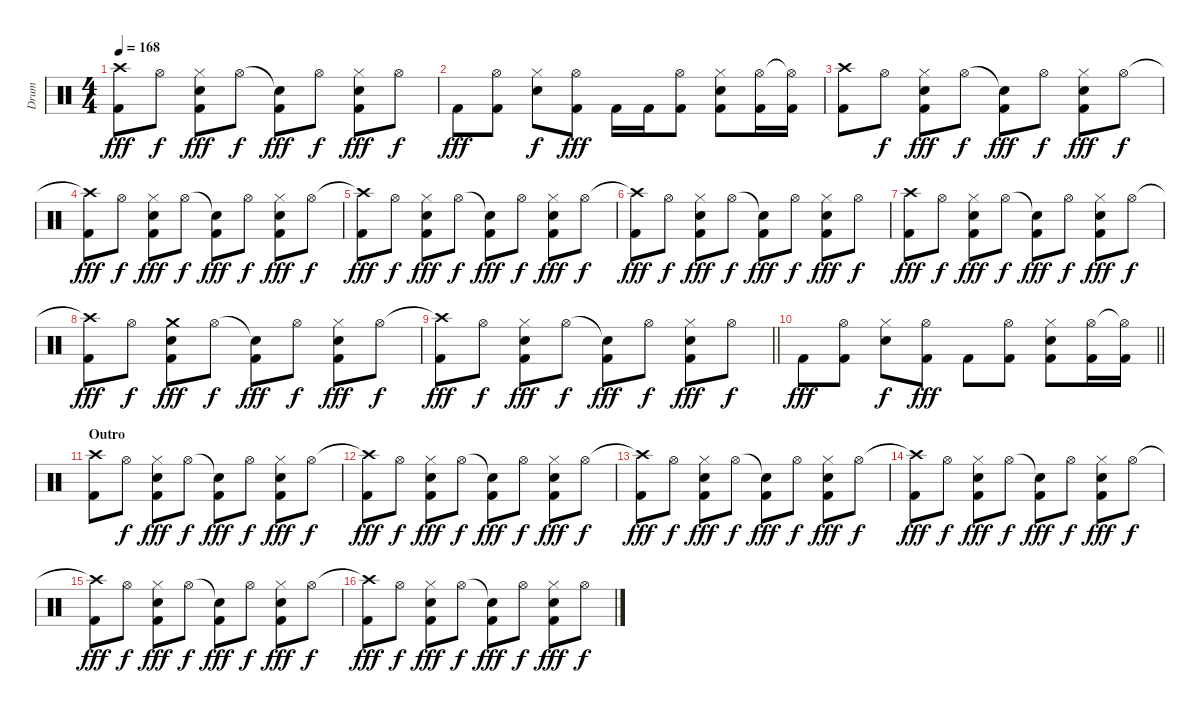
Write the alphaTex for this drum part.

\track ("Drum" "Drum") {instrument percussion}
\staff {score}
\articulation defaults
\ts (4 4)
\tempo 168
\clef neutral
\ks c
("Crash high (hit)"{t} "Kick (hit) 2").8{dy fff} "Hi-Hat (open)".8{dy f} ("Hi-Hat (closed)" "Snare (hit) 2" "Kick (hit) 2").8{dy fff} "Hi-Hat (open)".8{dy f} ("Snare (hit)"{t} "Kick (hit) 2").8{dy fff} "Hi-Hat (open)".8{dy f} ("Hi-Hat (closed)" "Snare (hit) 2" "Kick (hit) 2").8{dy fff} "Hi-Hat (open)".8{dy f} |
"Kick (hit) 2".8{dy fff} ("Hi-Hat (open)" "Kick (hit) 2").8 ("Hi-Hat (closed)" "Snare (hit) 2").8{dy f} ("Hi-Hat (open)" "Kick (hit) 2").8{dy fff} "Kick (hit) 2".16 "Kick (hit) 2".16 ("Hi-Hat (open)" "Kick (hit) 2").8 ("Hi-Hat (closed)" "Snare (hit) 2" "Kick (hit) 2").8 ("Hi-Hat (open)" "Kick (hit) 2").16 ("Hi-Hat (open)"{t} "Kick (hit) 2").16 |
("Crash high (hit)" "Kick (hit) 2").8 "Hi-Hat (open)".8{dy f} ("Hi-Hat (closed)" "Snare (hit) 2" "Kick (hit) 2").8{dy fff} "Hi-Hat (open)".8{dy f} ("Snare (hit)"{t} "Kick (hit) 2").8{dy fff} "Hi-Hat (open)".8{dy f} ("Hi-Hat (closed)" "Snare (hit) 2" "Kick (hit) 2").8{dy fff} "Hi-Hat (open)".8{dy f} |
("Crash high (hit)"{t} "Kick (hit) 2").8{dy fff} "Hi-Hat (open)".8{dy f} ("Hi-Hat (closed)" "Snare (hit) 2" "Kick (hit) 2").8{dy fff} "Hi-Hat (open)".8{dy f} ("Snare (hit)"{t} "Kick (hit) 2").8{dy fff} "Hi-Hat (open)".8{dy f} ("Hi-Hat (closed)" "Snare (hit) 2" "Kick (hit) 2").8{dy fff} "Hi-Hat (open)".8{dy f} |
("Crash high (hit)"{t} "Kick (hit) 2").8{dy fff} "Hi-Hat (open)".8{dy f} ("Hi-Hat (closed)" "Snare (hit) 2" "Kick (hit) 2").8{dy fff} "Hi-Hat (open)".8{dy f} ("Snare (hit)"{t} "Kick (hit) 2").8{dy fff} "Hi-Hat (open)".8{dy f} ("Hi-Hat (closed)" "Snare (hit) 2" "Kick (hit) 2").8{dy fff} "Hi-Hat (open)".8{dy f} |
("Crash high (hit)"{t} "Kick (hit) 2").8{dy fff} "Hi-Hat (open)".8{dy f} ("Hi-Hat (closed)" "Snare (hit) 2" "Kick (hit) 2").8{dy fff} "Hi-Hat (open)".8{dy f} ("Snare (hit)"{t} "Kick (hit) 2").8{dy fff} "Hi-Hat (open)".8{dy f} ("Hi-Hat (closed)" "Snare (hit) 2" "Kick (hit) 2").8{dy fff} "Hi-Hat (open)".8{dy f} |
("Crash high (hit)" "Kick (hit) 2").8{dy fff} "Hi-Hat (open)".8{dy f} ("Hi-Hat (closed)" "Snare (hit) 2" "Kick (hit) 2").8{dy fff} "Hi-Hat (open)".8{dy f} ("Snare (hit)"{t} "Kick (hit) 2").8{dy fff} "Hi-Hat (open)".8{dy f} ("Hi-Hat (closed)" "Snare (hit) 2" "Kick (hit) 2").8{dy fff} "Hi-Hat (open)".8{dy f} |
("Crash high (hit)"{t} "Kick (hit) 2").8{dy fff} "Hi-Hat (open)".8{dy f} ("Crash medium (hit)" "Snare (hit) 2" "Kick (hit) 2").8{dy fff} "Hi-Hat (open)".8{dy f} ("Snare (hit)"{t} "Kick (hit) 2").8{dy fff} "Hi-Hat (open)".8{dy f} ("Hi-Hat (closed)" "Snare (hit) 2" "Kick (hit) 2").8{dy fff} "Hi-Hat (open)".8{dy f} |
\barLineRight lightlight
("Crash high (hit)"{t} "Kick (hit) 2").8{dy fff} "Hi-Hat (open)".8{dy f} ("Hi-Hat (closed)" "Snare (hit) 2" "Kick (hit) 2").8{dy fff} "Hi-Hat (open)".8{dy f} ("Snare (hit)"{t} "Kick (hit) 2").8{dy fff} "Hi-Hat (open)".8{dy f} ("Hi-Hat (closed)" "Snare (hit) 2" "Kick (hit) 2").8{dy fff} "Hi-Hat (open)".8{dy f} |
\barLineRight lightlight "Kick (hit) 2".8{dy fff}
("Hi-Hat (open)" "Kick (hit) 2").8 ("Hi-Hat (closed)" "Snare (hit) 2").8{dy f} ("Hi-Hat (open)" "Kick (hit) 2").8{dy fff} "Kick (hit) 2".8 ("Hi-Hat (open)" "Kick (hit) 2").8 ("Hi-Hat (closed)" "Snare (hit) 2" "Kick (hit) 2").8 ("Hi-Hat (open)" "Kick (hit) 2").16 ("Hi-Hat (open)"{t} "Kick (hit) 2").16 |
\section ("" "Outro")
("Crash high (hit)" "Kick (hit) 2").8 "Hi-Hat (open)".8{dy f} ("Hi-Hat (closed)" "Snare (hit) 2" "Kick (hit) 2").8{dy fff} "Hi-Hat (open)".8{dy f} ("Snare (hit)"{t} "Kick (hit) 2").8{dy fff} "Hi-Hat (open)".8{dy f} ("Hi-Hat (closed)" "Snare (hit) 2" "Kick (hit) 2").8{dy fff} "Hi-Hat (open)".8{dy f} |
("Crash high (hit)"{t} "Kick (hit) 2").8{dy fff} "Hi-Hat (open)".8{dy f} ("Hi-Hat (closed)" "Snare (hit) 2" "Kick (hit) 2").8{dy fff} "Hi-Hat (open)".8{dy f} ("Snare (hit)"{t} "Kick (hit) 2").8{dy fff} "Hi-Hat (open)".8{dy f} ("Hi-Hat (closed)" "Snare (hit) 2" "Kick (hit) 2").8{dy fff} "Hi-Hat (open)".8{dy f} |
("Crash high (hit)"{t} "Kick (hit) 2").8{dy fff} "Hi-Hat (open)".8{dy f} ("Hi-Hat (closed)" "Snare (hit) 2" "Kick (hit) 2").8{dy fff} "Hi-Hat (open)".8{dy f} ("Snare (hit)"{t} "Kick (hit) 2").8{dy fff} "Hi-Hat (open)".8{dy f} ("Hi-Hat (closed)" "Snare (hit) 2" "Kick (hit) 2").8{dy fff} "Hi-Hat (open)".8{dy f} |
("Crash high (hit)"{t} "Kick (hit) 2").8{dy fff} "Hi-Hat (open)".8{dy f} ("Hi-Hat (closed)" "Snare (hit) 2" "Kick (hit) 2").8{dy fff} "Hi-Hat (open)".8{dy f} ("Snare (hit)"{t} "Kick (hit) 2").8{dy fff} "Hi-Hat (open)".8{dy f} ("Hi-Hat (closed)" "Snare (hit) 2" "Kick (hit) 2").8{dy fff} "Hi-Hat (open)".8{dy f} |
("Crash high (hit)"{t} "Kick (hit) 2").8{dy fff} "Hi-Hat (open)".8{dy f} ("Hi-Hat (closed)" "Snare (hit) 2" "Kick (hit) 2").8{dy fff} "Hi-Hat (open)".8{dy f} ("Snare (hit)"{t} "Kick (hit) 2").8{dy fff} "Hi-Hat (open)".8{dy f} ("Hi-Hat (closed)" "Snare (hit) 2" "Kick (hit) 2").8{dy fff} "Hi-Hat (open)".8{dy f} |
("Crash high (hit)"{t} "Kick (hit) 2").8{dy fff} "Hi-Hat (open)".8{dy f} ("Hi-Hat (closed)" "Snare (hit) 2" "Kick (hit) 2").8{dy fff} "Hi-Hat (open)".8{dy f} ("Snare (hit)"{t} "Kick (hit) 2").8{dy fff} "Hi-Hat (open)".8{dy f} ("Hi-Hat (closed)" "Snare (hit) 2" "Kick (hit) 2").8{dy fff} "Hi-Hat (open)".8{dy f}
